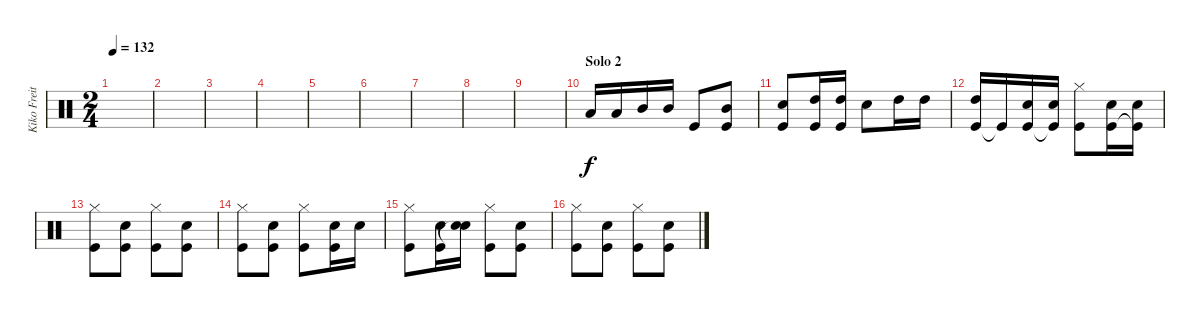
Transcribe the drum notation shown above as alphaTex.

\track ("Kiko Freitas" "Kiko Freit") {instrument percussion}
\staff {score}
\articulation defaults
\ts (2 4)
\tempo 132
\clef neutral
\ks c
|
|
|
|
|
|
|
|
|
\section ("" "Solo 2")
"Low Tom (hit)".16 "Low Tom (hit)".16 "Mid Tom (hit)".16 "Mid Tom (hit)".16 "Kick (hit)".8 ("Kick (hit)" "Mid Tom (hit)").8 |
("Kick (hit)" "Electric Snare (hit)").8 ("Kick (hit)" "High Tom (hit)").16 ("Kick (hit)" "High Tom (hit)").16 "Electric Snare (hit)".8 "High Tom (hit)".16 "High Tom (hit)".16 |
("Kick (hit)" "High Tom (hit)").16 "Kick (hit)"{t}.16 ("Kick (hit)" "Electric Snare (hit)").16 ("Kick (hit)"{t} "Electric Snare (hit)").16 ("Kick (hit)" "Hi-Hat (closed)").8 ("Kick (hit)" "Electric Snare (hit)").16 ("Kick (hit)"{t} "Electric Snare (hit)").16 |
("Kick (hit)" "Hi-Hat (closed)").8 ("Kick (hit)" "Electric Snare (hit)").8 ("Kick (hit)" "Hi-Hat (closed)").8 ("Kick (hit)" "Electric Snare (hit)").8 |
("Kick (hit)" "Hi-Hat (closed)").8 ("Kick (hit)" "Electric Snare (hit)").8 ("Kick (hit)" "Hi-Hat (closed)").8 ("Kick (hit)" "Electric Snare (hit)").16 "Electric Snare (hit)".16 |
("Kick (hit)" "Hi-Hat (closed)").8 ("Kick (hit)" "Electric Snare (hit)").16 ("Snare (hit)"{t} "Electric Snare (hit)").16 ("Kick (hit)" "Hi-Hat (closed)").8 ("Kick (hit)" "Electric Snare (hit)").8 |
("Kick (hit)" "Hi-Hat (closed)").8 ("Kick (hit)" "Electric Snare (hit)").8 ("Kick (hit)" "Hi-Hat (closed)").8 ("Kick (hit)" "Electric Snare (hit)").8
